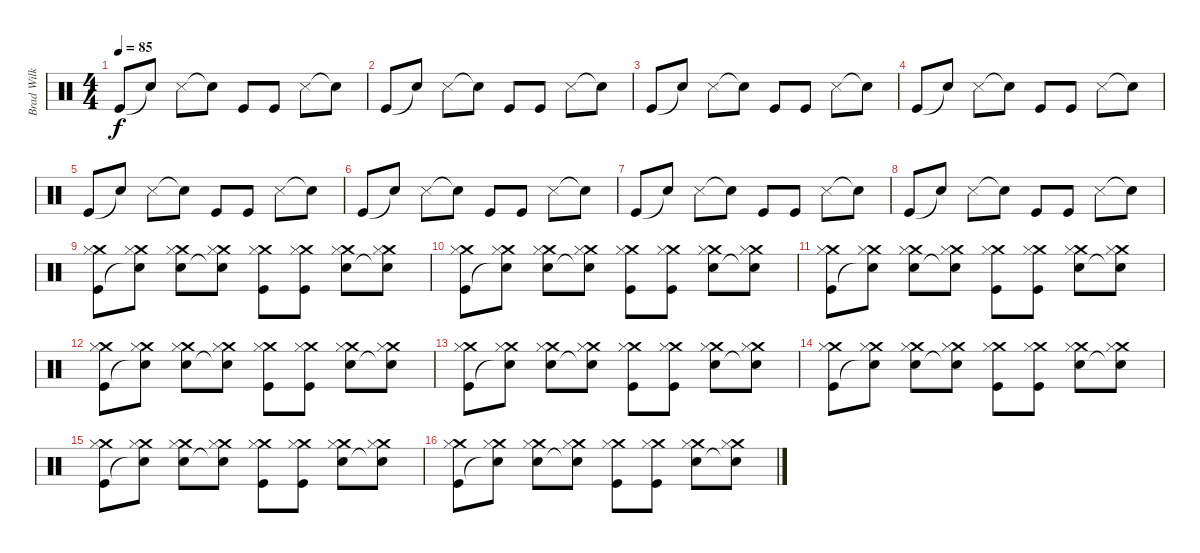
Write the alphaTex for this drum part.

\track ("Brad Wilk" "Brad Wilk") {instrument percussion}
\staff {score}
\articulation defaults
\ts (4 4)
\tempo 85
\clef neutral
\ks c "Kick (hit)".8{dy f} "Snare (hit)"{t}.8 "Snare (side stick) 3".8 "Snare (hit)"{t}.8 "Kick (hit)".8 "Kick (hit)".8 "Snare (side stick) 3".8 "Snare (hit)"{t}.8
|
"Kick (hit)".8 "Snare (hit)"{t}.8 "Snare (side stick) 3".8 "Snare (hit)"{t}.8 "Kick (hit)".8 "Kick (hit)".8 "Snare (side stick) 3".8 "Snare (hit)"{t}.8 |
"Kick (hit)".8 "Snare (hit)"{t}.8 "Snare (side stick) 3".8 "Snare (hit)"{t}.8 "Kick (hit)".8 "Kick (hit)".8 "Snare (side stick) 3".8 "Snare (hit)"{t}.8 |
"Kick (hit)".8 "Snare (hit)"{t}.8 "Snare (side stick) 3".8 "Snare (hit)"{t}.8 "Kick (hit)".8 "Kick (hit)".8 "Snare (side stick) 3".8 "Snare (hit)"{t}.8 |
"Kick (hit)".8 "Snare (hit)"{t}.8 "Snare (side stick) 3".8 "Snare (hit)"{t}.8 "Kick (hit)".8 "Kick (hit)".8 "Snare (side stick) 3".8 "Snare (hit)"{t}.8 |
"Kick (hit)".8 "Snare (hit)"{t}.8 "Snare (side stick) 3".8 "Snare (hit)"{t}.8 "Kick (hit)".8 "Kick (hit)".8 "Snare (side stick) 3".8 "Snare (hit)"{t}.8 |
"Kick (hit)".8 "Snare (hit)"{t}.8 "Snare (side stick) 3".8 "Snare (hit)"{t}.8 "Kick (hit)".8 "Kick (hit)".8 "Snare (side stick) 3".8 "Snare (hit)"{t}.8 |
"Kick (hit)".8 "Snare (hit)"{t}.8 "Snare (side stick) 3".8 "Snare (hit)"{t}.8 "Kick (hit)".8 "Kick (hit)".8 "Snare (side stick) 3".8 "Snare (hit)"{t}.8 |
("Crash medium (hit)" "Hi-Hat (closed)" "Kick (hit)").8 ("Crash medium (hit)" "Hi-Hat (closed)" "Snare (hit)"{t}).8 ("Crash medium (hit)" "Hi-Hat (closed)" "Snare (hit) 2").8 ("Crash medium (hit)" "Hi-Hat (closed)" "Snare (hit)"{t}).8 ("Crash medium (hit)" "Hi-Hat (closed)" "Kick (hit)").8 ("Crash medium (hit)" "Hi-Hat (closed)" "Kick (hit)").8 ("Crash medium (hit)" "Hi-Hat (closed)" "Snare (hit) 2").8 ("Crash medium (hit)" "Hi-Hat (closed)" "Snare (hit)"{t}).8 |
("Crash medium (hit)" "Hi-Hat (closed)" "Kick (hit)").8 ("Crash medium (hit)" "Hi-Hat (closed)" "Snare (hit)"{t}).8 ("Crash medium (hit)" "Hi-Hat (closed)" "Snare (hit) 2").8 ("Crash medium (hit)" "Hi-Hat (closed)" "Snare (hit)"{t}).8 ("Crash medium (hit)" "Hi-Hat (closed)" "Kick (hit)").8 ("Crash medium (hit)" "Hi-Hat (closed)" "Kick (hit)").8 ("Crash medium (hit)" "Hi-Hat (closed)" "Snare (hit) 2").8 ("Crash medium (hit)" "Hi-Hat (closed)" "Snare (hit)"{t}).8 |
("Crash medium (hit)" "Hi-Hat (closed)" "Kick (hit)").8 ("Crash medium (hit)" "Hi-Hat (closed)" "Snare (hit)"{t}).8 ("Crash medium (hit)" "Hi-Hat (closed)" "Snare (hit) 2").8 ("Crash medium (hit)" "Hi-Hat (closed)" "Snare (hit)"{t}).8 ("Crash medium (hit)" "Hi-Hat (closed)" "Kick (hit)").8 ("Crash medium (hit)" "Hi-Hat (closed)" "Kick (hit)").8 ("Crash medium (hit)" "Hi-Hat (closed)" "Snare (hit) 2").8 ("Crash medium (hit)" "Hi-Hat (closed)" "Snare (hit)"{t}).8 |
("Crash medium (hit)" "Hi-Hat (closed)" "Kick (hit)").8 ("Crash medium (hit)" "Hi-Hat (closed)" "Snare (hit)"{t}).8 ("Crash medium (hit)" "Hi-Hat (closed)" "Snare (hit) 2").8 ("Crash medium (hit)" "Hi-Hat (closed)" "Snare (hit)"{t}).8 ("Crash medium (hit)" "Hi-Hat (closed)" "Kick (hit)").8 ("Crash medium (hit)" "Hi-Hat (closed)" "Kick (hit)").8 ("Crash medium (hit)" "Hi-Hat (closed)" "Snare (hit) 2").8 ("Crash medium (hit)" "Hi-Hat (closed)" "Snare (hit)"{t}).8 |
("Crash medium (hit)" "Hi-Hat (closed)" "Kick (hit)").8 ("Crash medium (hit)" "Hi-Hat (closed)" "Snare (hit)"{t}).8 ("Crash medium (hit)" "Hi-Hat (closed)" "Snare (hit) 2").8 ("Crash medium (hit)" "Hi-Hat (closed)" "Snare (hit)"{t}).8 ("Crash medium (hit)" "Hi-Hat (closed)" "Kick (hit)").8 ("Crash medium (hit)" "Hi-Hat (closed)" "Kick (hit)").8 ("Crash medium (hit)" "Hi-Hat (closed)" "Snare (hit) 2").8 ("Crash medium (hit)" "Hi-Hat (closed)" "Snare (hit)"{t}).8 |
("Crash medium (hit)" "Hi-Hat (closed)" "Kick (hit)").8 ("Crash medium (hit)" "Hi-Hat (closed)" "Snare (hit)"{t}).8 ("Crash medium (hit)" "Hi-Hat (closed)" "Snare (hit) 2").8 ("Crash medium (hit)" "Hi-Hat (closed)" "Snare (hit)"{t}).8 ("Crash medium (hit)" "Hi-Hat (closed)" "Kick (hit)").8 ("Crash medium (hit)" "Hi-Hat (closed)" "Kick (hit)").8 ("Crash medium (hit)" "Hi-Hat (closed)" "Snare (hit) 2").8 ("Crash medium (hit)" "Hi-Hat (closed)" "Snare (hit)"{t}).8 |
("Crash medium (hit)" "Hi-Hat (closed)" "Kick (hit)").8 ("Crash medium (hit)" "Hi-Hat (closed)" "Snare (hit)"{t}).8 ("Crash medium (hit)" "Hi-Hat (closed)" "Snare (hit) 2").8 ("Crash medium (hit)" "Hi-Hat (closed)" "Snare (hit)"{t}).8 ("Crash medium (hit)" "Hi-Hat (closed)" "Kick (hit)").8 ("Crash medium (hit)" "Hi-Hat (closed)" "Kick (hit)").8 ("Crash medium (hit)" "Hi-Hat (closed)" "Snare (hit) 2").8 ("Crash medium (hit)" "Hi-Hat (closed)" "Snare (hit)"{t}).8 |
("Crash medium (hit)" "Hi-Hat (closed)" "Kick (hit)").8 ("Crash medium (hit)" "Hi-Hat (closed)" "Snare (hit)"{t}).8 ("Crash medium (hit)" "Hi-Hat (closed)" "Snare (hit) 2").8 ("Crash medium (hit)" "Hi-Hat (closed)" "Snare (hit)"{t}).8 ("Crash medium (hit)" "Hi-Hat (closed)" "Kick (hit)").8 ("Crash medium (hit)" "Hi-Hat (closed)" "Kick (hit)").8 ("Crash medium (hit)" "Hi-Hat (closed)" "Snare (hit) 2").8 ("Crash medium (hit)" "Hi-Hat (closed)" "Snare (hit)"{t}).8
